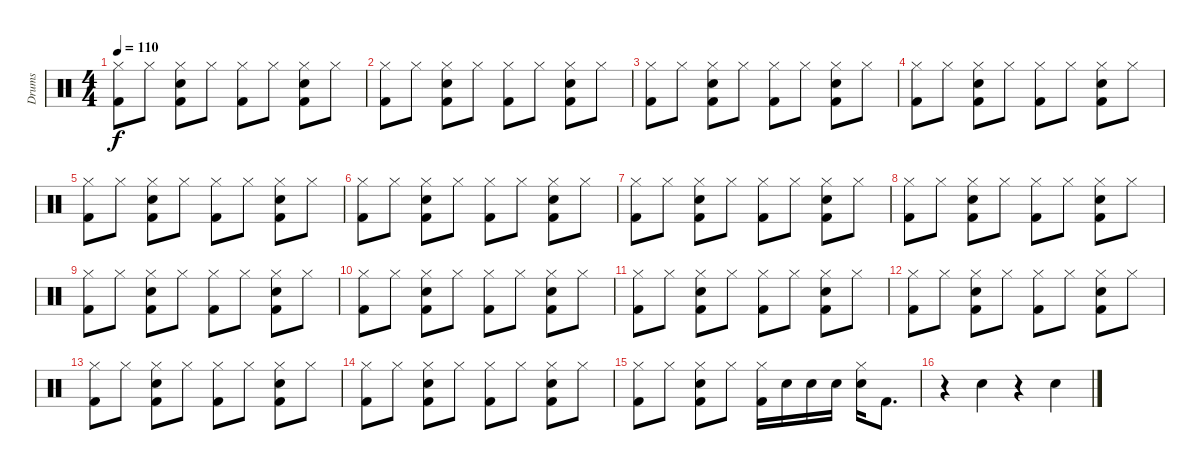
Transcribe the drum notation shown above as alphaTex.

\track ("Drums" "Drums") {instrument percussion}
\staff {score}
\articulation defaults
\ts (4 4)
\tempo 110
\clef neutral
\ks c
("Hi-Hat (closed)" "Kick (hit) 2").8{dy f} "Hi-Hat (closed)".8 ("Hi-Hat (closed)" "Snare (hit) 2" "Kick (hit) 2").8 "Hi-Hat (closed)".8 ("Hi-Hat (closed)" "Kick (hit) 2").8 "Hi-Hat (closed)".8 ("Hi-Hat (closed)" "Snare (hit) 2" "Kick (hit) 2").8 "Hi-Hat (closed)".8 |
("Hi-Hat (closed)" "Kick (hit) 2").8 "Hi-Hat (closed)".8 ("Hi-Hat (closed)" "Snare (hit) 2" "Kick (hit) 2").8 "Hi-Hat (closed)".8 ("Hi-Hat (closed)" "Kick (hit) 2").8 "Hi-Hat (closed)".8 ("Hi-Hat (closed)" "Snare (hit) 2" "Kick (hit) 2").8 "Hi-Hat (closed)".8 |
("Hi-Hat (closed)" "Kick (hit) 2").8 "Hi-Hat (closed)".8 ("Hi-Hat (closed)" "Snare (hit) 2" "Kick (hit) 2").8 "Hi-Hat (closed)".8 ("Hi-Hat (closed)" "Kick (hit) 2").8 "Hi-Hat (closed)".8 ("Hi-Hat (closed)" "Snare (hit) 2" "Kick (hit) 2").8 "Hi-Hat (closed)".8 |
("Hi-Hat (closed)" "Kick (hit) 2").8 "Hi-Hat (closed)".8 ("Hi-Hat (closed)" "Snare (hit) 2" "Kick (hit) 2").8 "Hi-Hat (closed)".8 ("Hi-Hat (closed)" "Kick (hit) 2").8 "Hi-Hat (closed)".8 ("Hi-Hat (closed)" "Snare (hit) 2" "Kick (hit) 2").8 "Hi-Hat (closed)".8 |
("Hi-Hat (closed)" "Kick (hit) 2").8 "Hi-Hat (closed)".8 ("Hi-Hat (closed)" "Snare (hit) 2" "Kick (hit) 2").8 "Hi-Hat (closed)".8 ("Hi-Hat (closed)" "Kick (hit) 2").8 "Hi-Hat (closed)".8 ("Hi-Hat (closed)" "Snare (hit) 2" "Kick (hit) 2").8 "Hi-Hat (closed)".8 |
("Hi-Hat (closed)" "Kick (hit) 2").8 "Hi-Hat (closed)".8 ("Hi-Hat (closed)" "Snare (hit) 2" "Kick (hit) 2").8 "Hi-Hat (closed)".8 ("Hi-Hat (closed)" "Kick (hit) 2").8 "Hi-Hat (closed)".8 ("Hi-Hat (closed)" "Snare (hit) 2" "Kick (hit) 2").8 "Hi-Hat (closed)".8 |
("Hi-Hat (closed)" "Kick (hit) 2").8 "Hi-Hat (closed)".8 ("Hi-Hat (closed)" "Snare (hit) 2" "Kick (hit) 2").8 "Hi-Hat (closed)".8 ("Hi-Hat (closed)" "Kick (hit) 2").8 "Hi-Hat (closed)".8 ("Hi-Hat (closed)" "Snare (hit) 2" "Kick (hit) 2").8 "Hi-Hat (closed)".8 |
("Hi-Hat (closed)" "Kick (hit) 2").8 "Hi-Hat (closed)".8 ("Hi-Hat (closed)" "Snare (hit) 2" "Kick (hit) 2").8 "Hi-Hat (closed)".8 ("Hi-Hat (closed)" "Kick (hit) 2").8 "Hi-Hat (closed)".8 ("Hi-Hat (closed)" "Snare (hit) 2" "Kick (hit) 2").8 "Hi-Hat (closed)".8 |
("Hi-Hat (closed)" "Kick (hit) 2").8 "Hi-Hat (closed)".8 ("Hi-Hat (closed)" "Snare (hit) 2" "Kick (hit) 2").8 "Hi-Hat (closed)".8 ("Hi-Hat (closed)" "Kick (hit) 2").8 "Hi-Hat (closed)".8 ("Hi-Hat (closed)" "Snare (hit) 2" "Kick (hit) 2").8 "Hi-Hat (closed)".8 |
("Hi-Hat (closed)" "Kick (hit) 2").8 "Hi-Hat (closed)".8 ("Hi-Hat (closed)" "Snare (hit) 2" "Kick (hit) 2").8 "Hi-Hat (closed)".8 ("Hi-Hat (closed)" "Kick (hit) 2").8 "Hi-Hat (closed)".8 ("Hi-Hat (closed)" "Snare (hit) 2" "Kick (hit) 2").8 "Hi-Hat (closed)".8 |
("Hi-Hat (closed)" "Kick (hit) 2").8 "Hi-Hat (closed)".8 ("Hi-Hat (closed)" "Snare (hit) 2" "Kick (hit) 2").8 "Hi-Hat (closed)".8 ("Hi-Hat (closed)" "Kick (hit) 2").8 "Hi-Hat (closed)".8 ("Hi-Hat (closed)" "Snare (hit) 2" "Kick (hit) 2").8 "Hi-Hat (closed)".8 |
("Hi-Hat (closed)" "Kick (hit) 2").8 "Hi-Hat (closed)".8 ("Hi-Hat (closed)" "Snare (hit) 2" "Kick (hit) 2").8 "Hi-Hat (closed)".8 ("Hi-Hat (closed)" "Kick (hit) 2").8 "Hi-Hat (closed)".8 ("Hi-Hat (closed)" "Snare (hit) 2" "Kick (hit) 2").8 "Hi-Hat (closed)".8 |
("Hi-Hat (closed)" "Kick (hit) 2").8 "Hi-Hat (closed)".8 ("Hi-Hat (closed)" "Snare (hit) 2" "Kick (hit) 2").8 "Hi-Hat (closed)".8 ("Hi-Hat (closed)" "Kick (hit) 2").8 "Hi-Hat (closed)".8 ("Hi-Hat (closed)" "Snare (hit) 2" "Kick (hit) 2").8 "Hi-Hat (closed)".8 |
("Hi-Hat (closed)" "Kick (hit) 2").8 "Hi-Hat (closed)".8 ("Hi-Hat (closed)" "Snare (hit) 2" "Kick (hit) 2").8 "Hi-Hat (closed)".8 ("Hi-Hat (closed)" "Kick (hit) 2").8 "Hi-Hat (closed)".8 ("Hi-Hat (closed)" "Snare (hit) 2" "Kick (hit) 2").8 "Hi-Hat (closed)".8 |
("Hi-Hat (closed)" "Kick (hit) 2").8 "Hi-Hat (closed)".8 ("Hi-Hat (closed)" "Snare (hit) 2" "Kick (hit) 2").8 "Hi-Hat (closed)".8 ("Hi-Hat (closed)" "Kick (hit) 2").16 "Snare (hit) 2".16 "Snare (hit) 2".16 "Snare (hit) 2".16 ("Hi-Hat (closed)" "Snare (hit) 2").16 "Kick (hit) 2".8{d} |
r.4 "Hand Clap (hit)".4 r.4 "Hand Clap (hit)".4
